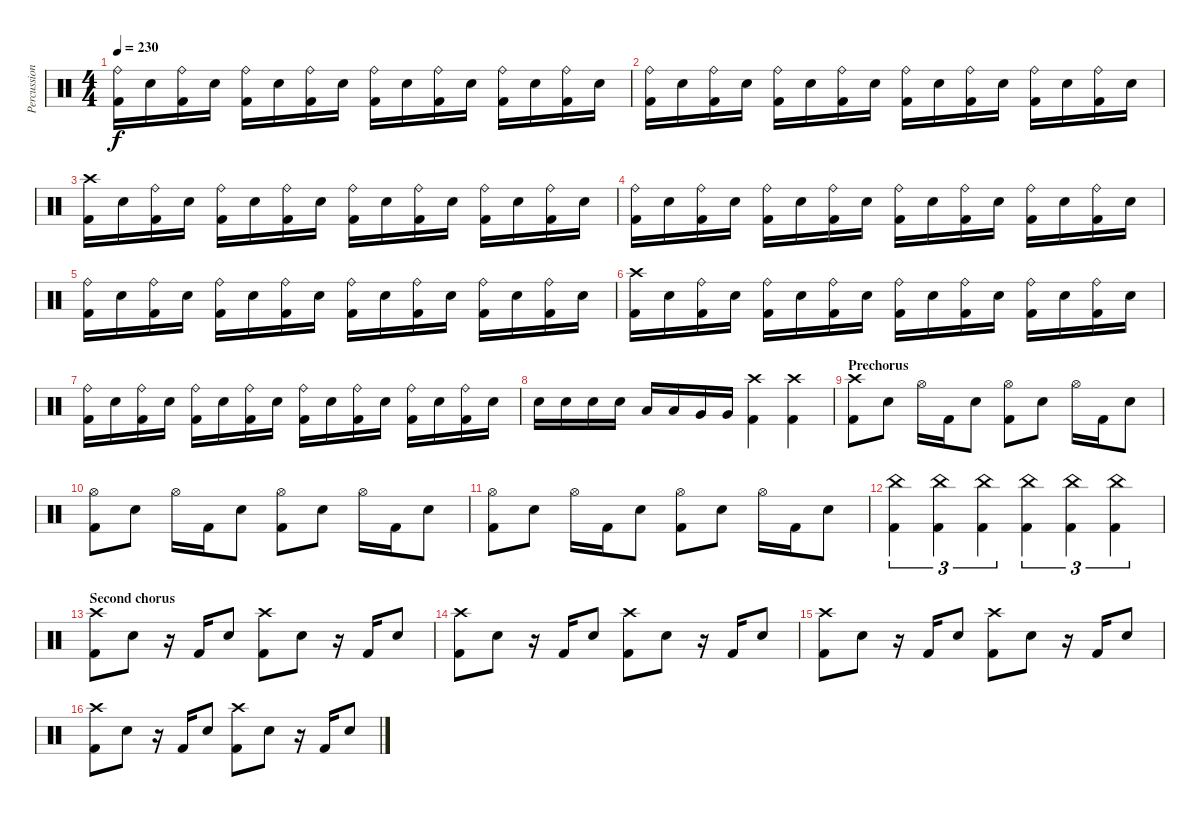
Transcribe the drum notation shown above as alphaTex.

\track ("Percussion" "Percussion") {instrument percussion}
\staff {score}
\articulation defaults
\ts (4 4)
\tempo 230
\clef neutral
\ks c
("Kick (hit) 2" "Ride (bell)").16{dy f} "Snare (hit) 2".16 ("Kick (hit) 2" "Ride (bell)").16 "Snare (hit) 2".16 ("Kick (hit) 2" "Ride (bell)").16 "Snare (hit) 2".16 ("Kick (hit) 2" "Ride (bell)").16 "Snare (hit) 2".16 ("Kick (hit) 2" "Ride (bell)").16 "Snare (hit) 2".16 ("Kick (hit) 2" "Ride (bell)").16 "Snare (hit) 2".16 ("Kick (hit) 2" "Ride (bell)").16 "Snare (hit) 2".16 ("Kick (hit) 2" "Ride (bell)").16 "Snare (hit) 2".16 |
("Kick (hit) 2" "Ride (bell)").16 "Snare (hit) 2".16 ("Kick (hit) 2" "Ride (bell)").16 "Snare (hit) 2".16 ("Kick (hit) 2" "Ride (bell)").16 "Snare (hit) 2".16 ("Kick (hit) 2" "Ride (bell)").16 "Snare (hit) 2".16 ("Kick (hit) 2" "Ride (bell)").16 "Snare (hit) 2".16 ("Kick (hit) 2" "Ride (bell)").16 "Snare (hit) 2".16 ("Kick (hit) 2" "Ride (bell)").16 "Snare (hit) 2".16 ("Kick (hit) 2" "Ride (bell)").16 "Snare (hit) 2".16 |
("Kick (hit) 2" "Crash high (hit)").16 "Snare (hit) 2".16 ("Kick (hit) 2" "Ride (bell)").16 "Snare (hit) 2".16 ("Kick (hit) 2" "Ride (bell)").16 "Snare (hit) 2".16 ("Kick (hit) 2" "Ride (bell)").16 "Snare (hit) 2".16 ("Kick (hit) 2" "Ride (bell)").16 "Snare (hit) 2".16 ("Kick (hit) 2" "Ride (bell)").16 "Snare (hit) 2".16 ("Kick (hit) 2" "Ride (bell)").16 "Snare (hit) 2".16 ("Kick (hit) 2" "Ride (bell)").16 "Snare (hit) 2".16 |
("Kick (hit) 2" "Ride (bell)").16 "Snare (hit) 2".16 ("Kick (hit) 2" "Ride (bell)").16 "Snare (hit) 2".16 ("Kick (hit) 2" "Ride (bell)").16 "Snare (hit) 2".16 ("Kick (hit) 2" "Ride (bell)").16 "Snare (hit) 2".16 ("Kick (hit) 2" "Ride (bell)").16 "Snare (hit) 2".16 ("Kick (hit) 2" "Ride (bell)").16 "Snare (hit) 2".16 ("Kick (hit) 2" "Ride (bell)").16 "Snare (hit) 2".16 ("Kick (hit) 2" "Ride (bell)").16 "Snare (hit) 2".16 |
("Kick (hit) 2" "Ride (bell)").16 "Snare (hit) 2".16 ("Kick (hit) 2" "Ride (bell)").16 "Snare (hit) 2".16 ("Kick (hit) 2" "Ride (bell)").16 "Snare (hit) 2".16 ("Kick (hit) 2" "Ride (bell)").16 "Snare (hit) 2".16 ("Kick (hit) 2" "Ride (bell)").16 "Snare (hit) 2".16 ("Kick (hit) 2" "Ride (bell)").16 "Snare (hit) 2".16 ("Kick (hit) 2" "Ride (bell)").16 "Snare (hit) 2".16 ("Kick (hit) 2" "Ride (bell)").16 "Snare (hit) 2".16 |
("Kick (hit) 2" "Crash high (hit)").16 "Snare (hit) 2".16 ("Kick (hit) 2" "Ride (bell)").16 "Snare (hit) 2".16 ("Kick (hit) 2" "Ride (bell)").16 "Snare (hit) 2".16 ("Kick (hit) 2" "Ride (bell)").16 "Snare (hit) 2".16 ("Kick (hit) 2" "Ride (bell)").16 "Snare (hit) 2".16 ("Kick (hit) 2" "Ride (bell)").16 "Snare (hit) 2".16 ("Kick (hit) 2" "Ride (bell)").16 "Snare (hit) 2".16 ("Kick (hit) 2" "Ride (bell)").16 "Snare (hit) 2".16 |
("Kick (hit) 2" "Ride (bell)").16 "Snare (hit) 2".16 ("Kick (hit) 2" "Ride (bell)").16 "Snare (hit) 2".16 ("Kick (hit) 2" "Ride (bell)").16 "Snare (hit) 2".16 ("Kick (hit) 2" "Ride (bell)").16 "Snare (hit) 2".16 ("Kick (hit) 2" "Ride (bell)").16 "Snare (hit) 2".16 ("Kick (hit) 2" "Ride (bell)").16 "Snare (hit) 2".16 ("Kick (hit) 2" "Ride (bell)").16 "Snare (hit) 2".16 ("Kick (hit) 2" "Ride (bell)").16 "Snare (hit) 2".16 |
"Snare (hit) 2".16 "Snare (hit) 2".16 "Snare (hit) 2".16 "Snare (hit) 2".16 "Low Tom (hit)".16 "Low Tom (hit)".16 "Very Low Tom (hit)".16 "Very Low Tom (hit)".16 ("Kick (hit) 2" "Crash high (hit)").4 ("Kick (hit) 2" "Crash high (hit)").4 |
\section ("" "Prechorus")
("Kick (hit) 2" "Crash high (hit)").8 "Snare (hit) 2".8 "Hi-Hat (open)".16 "Kick (hit) 2".16 "Snare (hit) 2".8 ("Kick (hit) 2" "Hi-Hat (open)").8 "Snare (hit) 2".8 "Hi-Hat (open)".16 "Kick (hit) 2".16 "Snare (hit) 2".8 |
("Kick (hit) 2" "Hi-Hat (open)").8 "Snare (hit) 2".8 "Hi-Hat (open)".16 "Kick (hit) 2".16 "Snare (hit) 2".8 ("Kick (hit) 2" "Hi-Hat (open)").8 "Snare (hit) 2".8 "Hi-Hat (open)".16 "Kick (hit) 2".16 "Snare (hit) 2".8 |
("Kick (hit) 2" "Hi-Hat (open)").8 "Snare (hit) 2".8 "Hi-Hat (open)".16 "Kick (hit) 2".16 "Snare (hit) 2".8 ("Kick (hit) 2" "Hi-Hat (open)").8 "Snare (hit) 2".8 "Hi-Hat (open)".16 "Kick (hit) 2".16 "Snare (hit) 2".8 |
("Kick (hit) 2" "China (hit)").4{tu (3 2)} ("Kick (hit) 2" "China (hit)").4{tu (3 2)} ("Kick (hit) 2" "China (hit)").4{tu (3 2)} ("Kick (hit) 2" "China (hit)").4{tu (3 2)} ("Kick (hit) 2" "China (hit)").4{tu (3 2)} ("Kick (hit) 2" "China (hit)").4{tu (3 2)} |
\section ("" "Second chorus")
("Kick (hit) 2" "Crash high (hit)").8 "Snare (hit) 2".8 r.16 "Kick (hit) 2".16 "Snare (hit) 2".8 ("Kick (hit) 2" "Crash high (hit)").8 "Snare (hit) 2".8 r.16 "Kick (hit) 2".16 "Snare (hit) 2".8 |
("Kick (hit) 2" "Crash high (hit)").8 "Snare (hit) 2".8 r.16 "Kick (hit) 2".16 "Snare (hit) 2".8 ("Kick (hit) 2" "Crash high (hit)").8 "Snare (hit) 2".8 r.16 "Kick (hit) 2".16 "Snare (hit) 2".8 |
("Kick (hit) 2" "Crash high (hit)").8 "Snare (hit) 2".8 r.16 "Kick (hit) 2".16 "Snare (hit) 2".8 ("Kick (hit) 2" "Crash high (hit)").8 "Snare (hit) 2".8 r.16 "Kick (hit) 2".16 "Snare (hit) 2".8 |
("Kick (hit) 2" "Crash high (hit)").8 "Snare (hit) 2".8 r.16 "Kick (hit) 2".16 "Snare (hit) 2".8 ("Kick (hit) 2" "Crash high (hit)").8 "Snare (hit) 2".8 r.16 "Kick (hit) 2".16 "Snare (hit) 2".8
